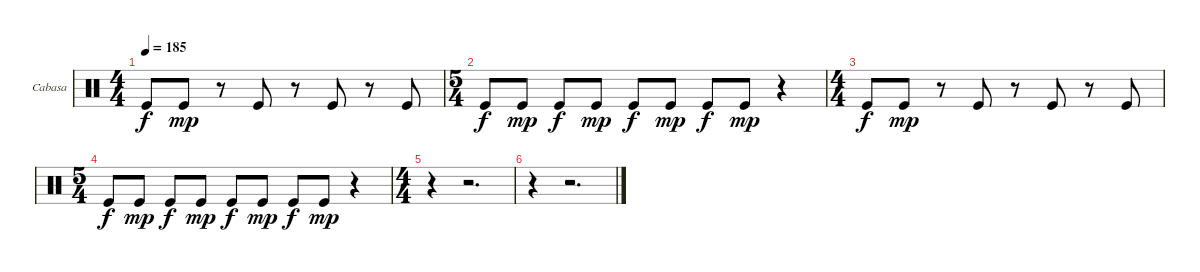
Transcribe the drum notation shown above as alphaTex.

\bracketExtendMode groupsimilarinstruments
\firstSystemTrackNameOrientation horizontal
\otherSystemsTrackNameOrientation horizontal
\track ("Cabasa" "Cabasa") {instrument percussion}
\staff {score}
\articulation defaults
\ts (4 4)
\beaming (8 2 2 2 2)
\tempo 185
\clef neutral
\ks c "Kick (hit)".8{dy f} "Kick (hit)".8{dy mp}
r.8 "Kick (hit)".8 r.8 "Kick (hit)".8 r.8 "Kick (hit)".8 |
\ts (5 4)
\beaming (8 2 2 2 4)
"Kick (hit)".8{dy f} "Kick (hit)".8{dy mp} "Kick (hit)".8{dy f} "Kick (hit)".8{dy mp} "Kick (hit)".8{dy f} "Kick (hit)".8{dy mp} "Kick (hit)".8{dy f} "Kick (hit)".8{dy mp} r.4 |
\ts (4 4)
\beaming (8 2 2 2 2)
"Kick (hit)".8{dy f} "Kick (hit)".8{dy mp} r.8 "Kick (hit)".8 r.8 "Kick (hit)".8 r.8 "Kick (hit)".8 |
\ts (5 4)
\beaming (8 2 2 2 4)
"Kick (hit)".8{dy f} "Kick (hit)".8{dy mp} "Kick (hit)".8{dy f} "Kick (hit)".8{dy mp} "Kick (hit)".8{dy f} "Kick (hit)".8{dy mp} "Kick (hit)".8{dy f} "Kick (hit)".8{dy mp} r.4 |
\ts (4 4)
\beaming (8 2 2 2 2)
r.4 r.2{d} |
r.4 r.2{d}
